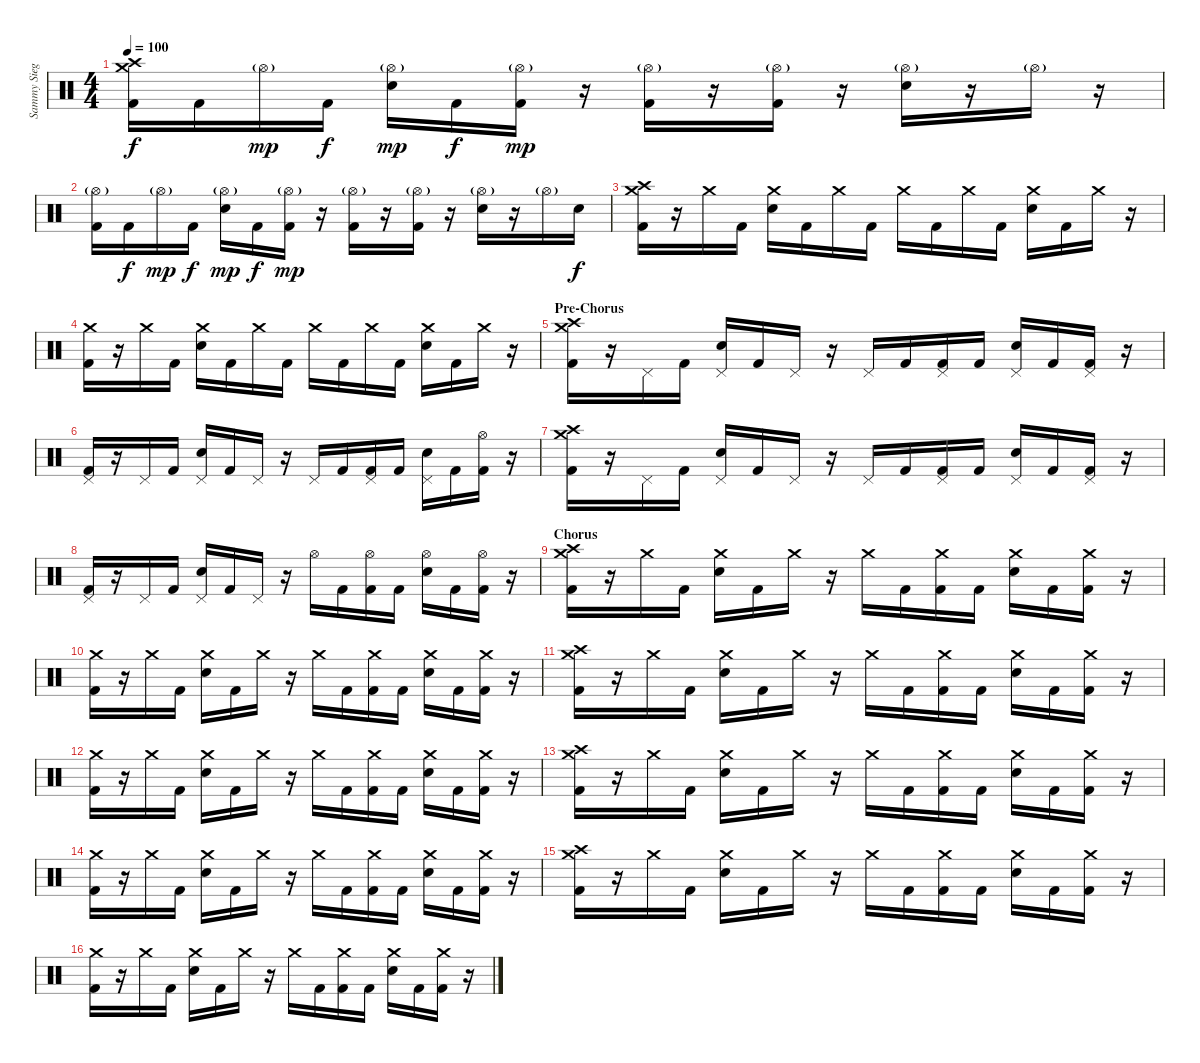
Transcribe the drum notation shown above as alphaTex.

\track ("Sammy Siegler" "Sammy Sieg") {instrument percussion}
\staff {score}
\articulation defaults
\ts (4 4)
\tempo 100
\clef neutral
\ks c
("Crash medium (hit)" "Crash high (hit)" "Kick (hit) 2").16{dy f} "Kick (hit) 2".16 "Hi-Hat (open)"{g}.16{dy mp} "Kick (hit) 2".16{dy f} ("Hi-Hat (open)"{g} "Electric Snare (hit)").16{dy mp} "Kick (hit) 2".16{dy f} ("Hi-Hat (open)"{g} "Kick (hit) 2").16{dy mp} r.16 ("Hi-Hat (open)"{g} "Kick (hit) 2").16 r.16 ("Hi-Hat (open)"{g} "Kick (hit) 2").16 r.16 ("Hi-Hat (open)"{g} "Electric Snare (hit)").16 r.16 "Hi-Hat (open)"{g}.16 r.16 |
("Hi-Hat (open)"{g} "Kick (hit) 2").16 "Kick (hit) 2".16{dy f} "Hi-Hat (open)"{g}.16{dy mp} "Kick (hit) 2".16{dy f} ("Hi-Hat (open)"{g} "Electric Snare (hit)").16{dy mp} "Kick (hit) 2".16{dy f} ("Hi-Hat (open)"{g} "Kick (hit) 2").16{dy mp} r.16 ("Hi-Hat (open)"{g} "Kick (hit) 2").16 r.16 ("Hi-Hat (open)"{g} "Kick (hit) 2").16 r.16 ("Hi-Hat (open)"{g} "Electric Snare (hit)").16 r.16 "Hi-Hat (open)"{g}.16 "Electric Snare (hit)".16{dy f} |
("Crash medium (hit)" "Crash high (hit)" "Kick (hit) 2").16 r.16 "Crash medium (hit)".16 "Kick (hit) 2".16 ("Crash medium (hit)" "Electric Snare (hit)").16 "Kick (hit) 2".16 "Crash medium (hit)".16 "Kick (hit) 2".16 "Crash medium (hit)".16 "Kick (hit) 2".16 "Crash medium (hit)".16 "Kick (hit) 2".16 ("Crash medium (hit)" "Electric Snare (hit)").16 "Kick (hit) 2".16 "Crash medium (hit)".16 r.16 |
("Crash medium (hit)" "Kick (hit) 2").16 r.16 "Crash medium (hit)".16 "Kick (hit) 2".16 ("Crash medium (hit)" "Electric Snare (hit)").16 "Kick (hit) 2".16 "Crash medium (hit)".16 "Kick (hit) 2".16 "Crash medium (hit)".16 "Kick (hit) 2".16 "Crash medium (hit)".16 "Kick (hit) 2".16 ("Crash medium (hit)" "Electric Snare (hit)").16 "Kick (hit) 2".16 "Crash medium (hit)".16 r.16 |
\section ("" "Pre-Chorus")
("Crash medium (hit)" "Crash high (hit)" "Kick (hit) 2").16 r.16 "Pedal Hi-Hat (hit)".16 "Kick (hit) 2".16 ("Pedal Hi-Hat (hit)" "Electric Snare (hit)").16 "Kick (hit) 2".16 "Pedal Hi-Hat (hit)".16 r.16 "Pedal Hi-Hat (hit)".16 "Kick (hit) 2".16 ("Pedal Hi-Hat (hit)" "Kick (hit) 2").16 "Kick (hit) 2".16 ("Pedal Hi-Hat (hit)" "Electric Snare (hit)").16 "Kick (hit) 2".16 ("Pedal Hi-Hat (hit)" "Kick (hit) 2").16 r.16 |
("Pedal Hi-Hat (hit)" "Kick (hit) 2").16 r.16 "Pedal Hi-Hat (hit)".16 "Kick (hit) 2".16 ("Pedal Hi-Hat (hit)" "Electric Snare (hit)").16 "Kick (hit) 2".16 "Pedal Hi-Hat (hit)".16 r.16 "Pedal Hi-Hat (hit)".16 "Kick (hit) 2".16 ("Pedal Hi-Hat (hit)" "Kick (hit) 2").16 "Kick (hit) 2".16 ("Pedal Hi-Hat (hit)" "Electric Snare (hit)").16 "Kick (hit) 2".16 ("Hi-Hat (open)" "Kick (hit) 2").16 r.16 |
("Crash medium (hit)" "Crash high (hit)" "Kick (hit) 2").16 r.16 "Pedal Hi-Hat (hit)".16 "Kick (hit) 2".16 ("Pedal Hi-Hat (hit)" "Electric Snare (hit)").16 "Kick (hit) 2".16 "Pedal Hi-Hat (hit)".16 r.16 "Pedal Hi-Hat (hit)".16 "Kick (hit) 2".16 ("Pedal Hi-Hat (hit)" "Kick (hit) 2").16 "Kick (hit) 2".16 ("Pedal Hi-Hat (hit)" "Electric Snare (hit)").16 "Kick (hit) 2".16 ("Pedal Hi-Hat (hit)" "Kick (hit) 2").16 r.16 |
("Pedal Hi-Hat (hit)" "Kick (hit) 2").16 r.16 "Pedal Hi-Hat (hit)".16 "Kick (hit) 2".16 ("Pedal Hi-Hat (hit)" "Electric Snare (hit)").16 "Kick (hit) 2".16 "Pedal Hi-Hat (hit)".16 r.16 "Hi-Hat (open)".16 "Kick (hit) 2".16 ("Hi-Hat (open)" "Kick (hit) 2").16 "Kick (hit) 2".16 ("Hi-Hat (open)" "Electric Snare (hit)").16 "Kick (hit) 2".16 ("Hi-Hat (open)" "Kick (hit) 2").16 r.16 |
\section ("" "Chorus")
("Crash medium (hit)" "Crash high (hit)" "Kick (hit) 2").16 r.16 "Crash medium (hit)".16 "Kick (hit) 2".16 ("Crash medium (hit)" "Electric Snare (hit)").16 "Kick (hit) 2".16 "Crash medium (hit)".16 r.16 "Crash medium (hit)".16 "Kick (hit) 2".16 ("Crash medium (hit)" "Kick (hit) 2").16 "Kick (hit) 2".16 ("Crash medium (hit)" "Electric Snare (hit)").16 "Kick (hit) 2".16 ("Crash medium (hit)" "Kick (hit) 2").16 r.16 |
("Crash medium (hit)" "Kick (hit) 2").16 r.16 "Crash medium (hit)".16 "Kick (hit) 2".16 ("Crash medium (hit)" "Electric Snare (hit)").16 "Kick (hit) 2".16 "Crash medium (hit)".16 r.16 "Crash medium (hit)".16 "Kick (hit) 2".16 ("Crash medium (hit)" "Kick (hit) 2").16 "Kick (hit) 2".16 ("Crash medium (hit)" "Electric Snare (hit)").16 "Kick (hit) 2".16 ("Crash medium (hit)" "Kick (hit) 2").16 r.16 |
("Crash medium (hit)" "Crash high (hit)" "Kick (hit) 2").16 r.16 "Crash medium (hit)".16 "Kick (hit) 2".16 ("Crash medium (hit)" "Electric Snare (hit)").16 "Kick (hit) 2".16 "Crash medium (hit)".16 r.16 "Crash medium (hit)".16 "Kick (hit) 2".16 ("Crash medium (hit)" "Kick (hit) 2").16 "Kick (hit) 2".16 ("Crash medium (hit)" "Electric Snare (hit)").16 "Kick (hit) 2".16 ("Crash medium (hit)" "Kick (hit) 2").16 r.16 |
("Crash medium (hit)" "Kick (hit) 2").16 r.16 "Crash medium (hit)".16 "Kick (hit) 2".16 ("Crash medium (hit)" "Electric Snare (hit)").16 "Kick (hit) 2".16 "Crash medium (hit)".16 r.16 "Crash medium (hit)".16 "Kick (hit) 2".16 ("Crash medium (hit)" "Kick (hit) 2").16 "Kick (hit) 2".16 ("Crash medium (hit)" "Electric Snare (hit)").16 "Kick (hit) 2".16 ("Crash medium (hit)" "Kick (hit) 2").16 r.16 |
("Crash medium (hit)" "Crash high (hit)" "Kick (hit) 2").16 r.16 "Crash medium (hit)".16 "Kick (hit) 2".16 ("Crash medium (hit)" "Electric Snare (hit)").16 "Kick (hit) 2".16 "Crash medium (hit)".16 r.16 "Crash medium (hit)".16 "Kick (hit) 2".16 ("Crash medium (hit)" "Kick (hit) 2").16 "Kick (hit) 2".16 ("Crash medium (hit)" "Electric Snare (hit)").16 "Kick (hit) 2".16 ("Crash medium (hit)" "Kick (hit) 2").16 r.16 |
("Crash medium (hit)" "Kick (hit) 2").16 r.16 "Crash medium (hit)".16 "Kick (hit) 2".16 ("Crash medium (hit)" "Electric Snare (hit)").16 "Kick (hit) 2".16 "Crash medium (hit)".16 r.16 "Crash medium (hit)".16 "Kick (hit) 2".16 ("Crash medium (hit)" "Kick (hit) 2").16 "Kick (hit) 2".16 ("Crash medium (hit)" "Electric Snare (hit)").16 "Kick (hit) 2".16 ("Crash medium (hit)" "Kick (hit) 2").16 r.16 |
("Crash medium (hit)" "Crash high (hit)" "Kick (hit) 2").16 r.16 "Crash medium (hit)".16 "Kick (hit) 2".16 ("Crash medium (hit)" "Electric Snare (hit)").16 "Kick (hit) 2".16 "Crash medium (hit)".16 r.16 "Crash medium (hit)".16 "Kick (hit) 2".16 ("Crash medium (hit)" "Kick (hit) 2").16 "Kick (hit) 2".16 ("Crash medium (hit)" "Electric Snare (hit)").16 "Kick (hit) 2".16 ("Crash medium (hit)" "Kick (hit) 2").16 r.16 |
("Crash medium (hit)" "Kick (hit) 2").16 r.16 "Crash medium (hit)".16 "Kick (hit) 2".16 ("Crash medium (hit)" "Electric Snare (hit)").16 "Kick (hit) 2".16 "Crash medium (hit)".16 r.16 "Crash medium (hit)".16 "Kick (hit) 2".16 ("Crash medium (hit)" "Kick (hit) 2").16 "Kick (hit) 2".16 ("Crash medium (hit)" "Electric Snare (hit)").16 "Kick (hit) 2".16 ("Crash medium (hit)" "Kick (hit) 2").16 r.16
